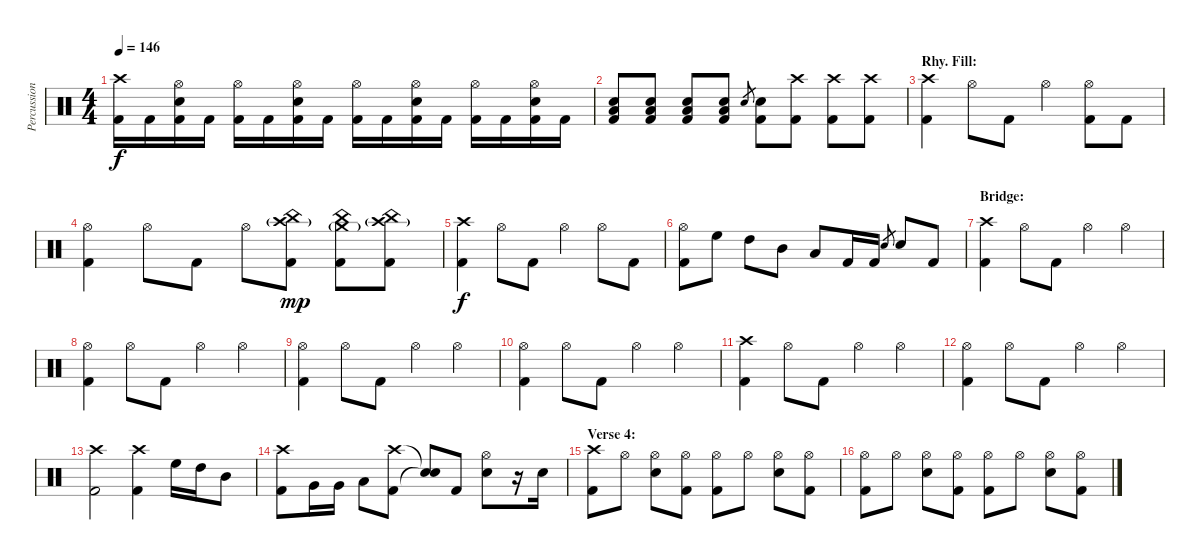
\track ("Percussion" "Percussion") {instrument percussion}
\staff {score}
\articulation defaults
\ts (4 4)
\tempo 146
\clef neutral
\ks c
("Crash high (hit)" "Kick (hit) 2").16{dy f} "Kick (hit) 2".16 ("Hi-Hat (open)" "Snare (hit) 2" "Kick (hit) 2").16 "Kick (hit) 2".16 ("Hi-Hat (open)" "Kick (hit) 2").16 "Kick (hit) 2".16 ("Hi-Hat (open)" "Snare (hit) 2" "Kick (hit) 2").16 "Kick (hit) 2".16 ("Hi-Hat (open)" "Kick (hit) 2").16 "Kick (hit) 2".16 ("Hi-Hat (open)" "Snare (hit) 2" "Kick (hit) 2").16 "Kick (hit) 2".16 ("Hi-Hat (open)" "Kick (hit) 2").16 "Kick (hit) 2".16 ("Hi-Hat (open)" "Snare (hit) 2" "Kick (hit) 2").16 "Kick (hit) 2".16 |
("Low Tom (hit)" "Snare (hit) 2" "Kick (hit) 2").8 ("Low Tom (hit)" "Snare (hit) 2" "Kick (hit) 2").8 ("Low Tom (hit)" "Snare (hit) 2" "Kick (hit) 2").8 ("Low Tom (hit)" "Snare (hit) 2" "Kick (hit) 2").8 "Snare (hit) 2".8{gr} ("Snare (hit) 2" "Kick (hit) 2").8 ("Crash high (hit)" "Kick (hit) 2").8 ("Crash high (hit)" "Kick (hit) 2").8 ("Crash high (hit)" "Kick (hit) 2").8 |
\section ("" "Rhy. Fill:")
("Crash high (hit)" "Kick (hit) 2").4 "Hi-Hat (open)".8 "Kick (hit) 2".8 "Hi-Hat (open)".4 ("Hi-Hat (open)" "Kick (hit) 2").8 "Kick (hit) 2".8 |
("Hi-Hat (open)" "Kick (hit) 2").4 "Hi-Hat (open)".8 "Kick (hit) 2".8 "Hi-Hat (open)".8 ("China (hit)" "Crash high (hit)"{g} "Kick (hit) 2").8{dy mp} ("China (hit)" "Crash medium (hit)"{g} "Kick (hit) 2").8 ("China (hit)" "Crash high (hit)"{g} "Kick (hit) 2").8 |
("Crash high (hit)" "Kick (hit) 2").4{dy f} "Hi-Hat (open)".8 "Kick (hit) 2".8 "Hi-Hat (open)".4 "Hi-Hat (open)".8 "Kick (hit) 2".8 |
("Hi-Hat (open)" "Kick (hit) 2").8 "High Floor Tom (hit)".8 "High Tom (hit)".8 "Mid Tom (hit)".8 "Low Tom (hit)".8 "Kick (hit) 2".16 "Kick (hit) 2".16 "Snare (hit) 2".8{gr} "Snare (hit) 2".8 "Kick (hit) 2".8 |
\section ("" "Bridge:")
("Crash high (hit)" "Kick (hit) 2").4 "Hi-Hat (open)".8 "Kick (hit) 2".8 "Hi-Hat (open)".4 "Hi-Hat (open)".4 |
("Hi-Hat (open)" "Kick (hit) 2").4 "Hi-Hat (open)".8 "Kick (hit) 2".8 "Hi-Hat (open)".4 "Hi-Hat (open)".4 |
("Hi-Hat (open)" "Kick (hit) 2").4 "Hi-Hat (open)".8 "Kick (hit) 2".8 "Hi-Hat (open)".4 "Hi-Hat (open)".4 |
("Hi-Hat (open)" "Kick (hit) 2").4 "Hi-Hat (open)".8 "Kick (hit) 2".8 "Hi-Hat (open)".4 "Hi-Hat (open)".4 |
("Crash high (hit)" "Kick (hit) 2").4 "Hi-Hat (open)".8 "Kick (hit) 2".8 "Hi-Hat (open)".4 "Hi-Hat (open)".4 |
("Hi-Hat (open)" "Kick (hit) 2").4 "Hi-Hat (open)".8 "Kick (hit) 2".8 "Hi-Hat (open)".4 "Hi-Hat (open)".4 |
("Crash high (hit)" "Kick (hit) 2").2 ("Crash high (hit)" "Kick (hit) 2").4 "High Floor Tom (hit)".16 "High Tom (hit)".16 "Mid Tom (hit)".8 |
("Crash high (hit)" "Kick (hit) 2").8 "Very Low Tom (hit)".16 "Very Low Tom (hit)".16 "Low Floor Tom (hit)".8 ("Crash high (hit)" "Kick (hit) 2").8 ("Snare (hit)"{t} "Snare (hit)"{t}).8 "Kick (hit) 2".8 ("Hi-Hat (open)" "Snare (hit) 2").8 r.16 "Snare (hit) 2".16 |
\section ("" "Verse 4:")
("Crash high (hit)" "Kick (hit) 2").8 "Hi-Hat (open)".8 ("Hi-Hat (open)" "Snare (hit) 2").8 ("Hi-Hat (open)" "Kick (hit) 2").8 ("Hi-Hat (open)" "Kick (hit) 2").8 "Hi-Hat (open)".8 ("Hi-Hat (open)" "Snare (hit) 2").8 ("Hi-Hat (open)" "Kick (hit) 2").8 |
("Hi-Hat (open)" "Kick (hit) 2").8 "Hi-Hat (open)".8 ("Hi-Hat (open)" "Snare (hit) 2").8 ("Hi-Hat (open)" "Kick (hit) 2").8 ("Hi-Hat (open)" "Kick (hit) 2").8 "Hi-Hat (open)".8 ("Hi-Hat (open)" "Snare (hit) 2").8 ("Hi-Hat (open)" "Kick (hit) 2").8
